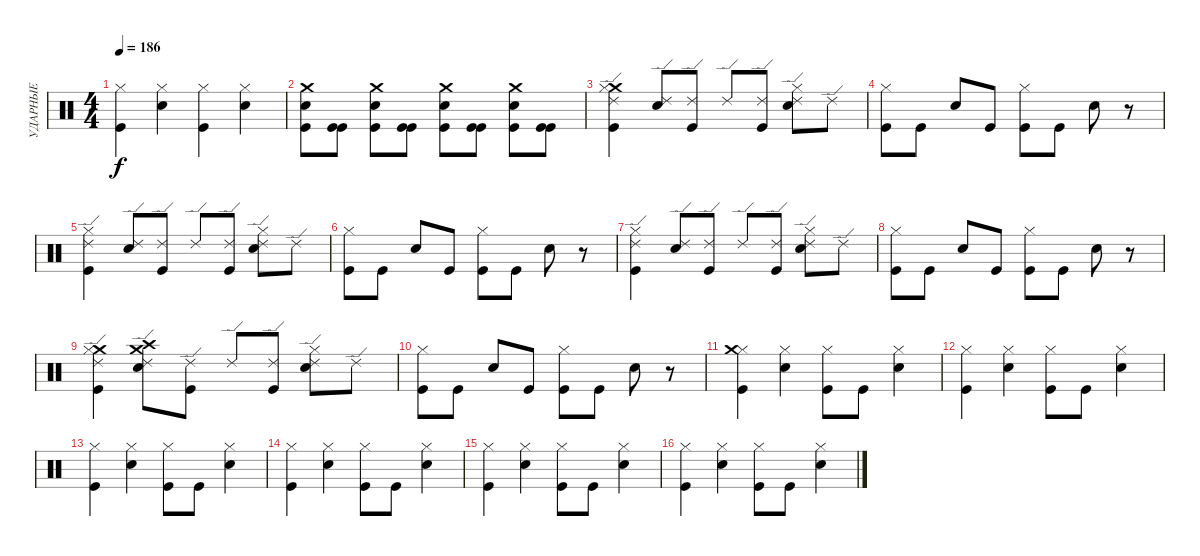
\track ("УДАРНЫЕ" "УДАРНЫЕ") {instrument percussion}
\staff {score}
\articulation defaults
\ts (4 4)
\tempo 186
\clef neutral
\ks c
("Hi-Hat (closed)" "Kick (hit)").4{dy f} ("Hi-Hat (closed)" "Electric Snare (hit)").4 ("Hi-Hat (closed)" "Kick (hit)").4 ("Hi-Hat (closed)" "Electric Snare (hit)").4 |
("Electric Snare (hit)" "Crash medium (hit)" "Kick (hit)").8 ("Kick (hit)" "Kick (hit)").8 ("Electric Snare (hit)" "Crash medium (hit)" "Kick (hit)").8 ("Kick (hit)" "Kick (hit)").8 ("Electric Snare (hit)" "Crash medium (hit)" "Kick (hit)").8 ("Kick (hit)" "Kick (hit)").8 ("Electric Snare (hit)" "Crash medium (hit)" "Kick (hit)").8 ("Kick (hit)" "Kick (hit)").8 |
("Ride (edge) 2" "Crash medium (hit)" "Hi-Hat (closed)" "Kick (hit)").4 ("Ride (edge) 2" "Electric Snare (hit)").8 ("Ride (edge) 2" "Kick (hit)").8 "Ride (edge) 2".8 ("Ride (edge) 2" "Kick (hit)").8 ("Ride (edge) 2" "Hi-Hat (closed)" "Electric Snare (hit)").8 "Ride (edge) 2".8 |
("Hi-Hat (closed)" "Kick (hit)").8 "Kick (hit)".8 "Electric Snare (hit)".8 "Kick (hit)".8 ("Hi-Hat (closed)" "Kick (hit)").8 "Kick (hit)".8 "Electric Snare (hit)".8 r.8 |
("Ride (edge) 2" "Hi-Hat (closed)" "Kick (hit)").4 ("Ride (edge) 2" "Electric Snare (hit)").8 ("Ride (edge) 2" "Kick (hit)").8 "Ride (edge) 2".8 ("Ride (edge) 2" "Kick (hit)").8 ("Ride (edge) 2" "Hi-Hat (closed)" "Electric Snare (hit)").8 "Ride (edge) 2".8 |
("Hi-Hat (closed)" "Kick (hit)").8 "Kick (hit)".8 "Electric Snare (hit)".8 "Kick (hit)".8 ("Hi-Hat (closed)" "Kick (hit)").8 "Kick (hit)".8 "Electric Snare (hit)".8 r.8 |
("Ride (edge) 2" "Hi-Hat (closed)" "Kick (hit)").4 ("Ride (edge) 2" "Electric Snare (hit)").8 ("Ride (edge) 2" "Kick (hit)").8 "Ride (edge) 2".8 ("Ride (edge) 2" "Kick (hit)").8 ("Ride (edge) 2" "Hi-Hat (closed)" "Electric Snare (hit)").8 "Ride (edge) 2".8 |
("Hi-Hat (closed)" "Kick (hit)").8 "Kick (hit)".8 "Electric Snare (hit)".8 "Kick (hit)".8 ("Hi-Hat (closed)" "Kick (hit)").8 "Kick (hit)".8 "Electric Snare (hit)".8 r.8 |
("Ride (edge) 2" "Crash medium (hit)" "Hi-Hat (closed)" "Kick (hit)").4 ("Ride (edge) 2" "Crash medium (hit)" "Crash high (hit)" "Electric Snare (hit)").8 ("Ride (edge) 2" "Kick (hit)").8 "Ride (edge) 2".8 ("Ride (edge) 2" "Kick (hit)").8 ("Ride (edge) 2" "Hi-Hat (closed)" "Electric Snare (hit)").8 "Ride (edge) 2".8 |
("Hi-Hat (closed)" "Kick (hit)").8 "Kick (hit)".8 "Electric Snare (hit)".8 "Kick (hit)".8 ("Hi-Hat (closed)" "Kick (hit)").8 "Kick (hit)".8 "Electric Snare (hit)".8 r.8 |
("Hi-Hat (closed)" "Kick (hit)" "Crash medium (hit)").4 ("Hi-Hat (closed)" "Electric Snare (hit)").4 ("Hi-Hat (closed)" "Kick (hit)").8 "Kick (hit)".8 ("Hi-Hat (closed)" "Electric Snare (hit)").4 |
("Hi-Hat (closed)" "Kick (hit)").4 ("Hi-Hat (closed)" "Electric Snare (hit)").4 ("Hi-Hat (closed)" "Kick (hit)").8 "Kick (hit)".8 ("Hi-Hat (closed)" "Electric Snare (hit)").4 |
("Hi-Hat (closed)" "Kick (hit)").4 ("Hi-Hat (closed)" "Electric Snare (hit)").4 ("Hi-Hat (closed)" "Kick (hit)").8 "Kick (hit)".8 ("Hi-Hat (closed)" "Electric Snare (hit)").4 |
("Hi-Hat (closed)" "Kick (hit)").4 ("Hi-Hat (closed)" "Electric Snare (hit)").4 ("Hi-Hat (closed)" "Kick (hit)").8 "Kick (hit)".8 ("Hi-Hat (closed)" "Electric Snare (hit)").4 |
("Hi-Hat (closed)" "Kick (hit)").4 ("Hi-Hat (closed)" "Electric Snare (hit)").4 ("Hi-Hat (closed)" "Kick (hit)").8 "Kick (hit)".8 ("Hi-Hat (closed)" "Electric Snare (hit)").4 |
("Hi-Hat (closed)" "Kick (hit)").4 ("Hi-Hat (closed)" "Electric Snare (hit)").4 ("Hi-Hat (closed)" "Kick (hit)").8 "Kick (hit)".8 ("Hi-Hat (closed)" "Electric Snare (hit)").4
